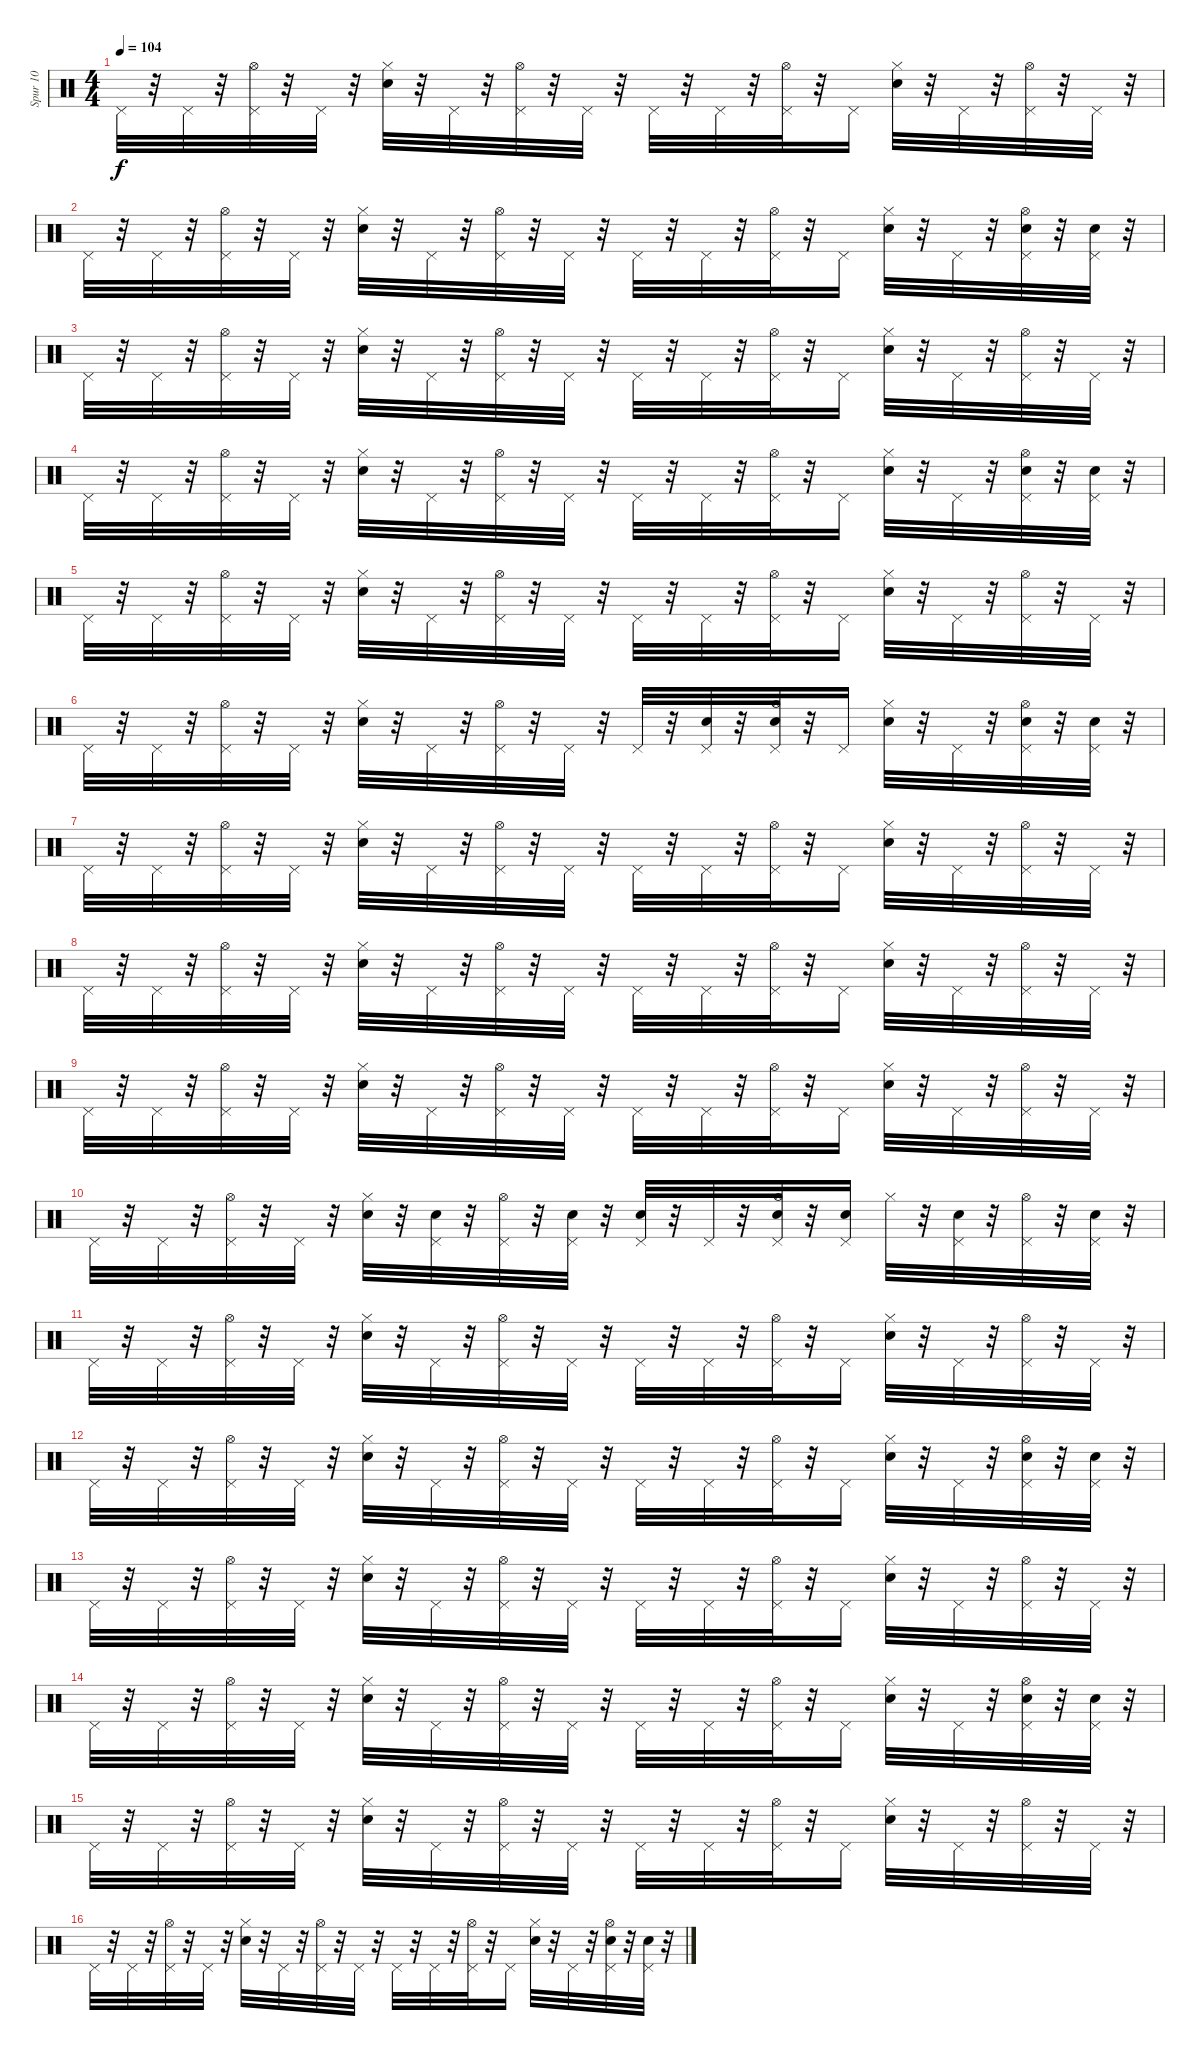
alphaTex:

\track ("Spur 10" "Spur 10") {instrument percussion}
\staff {score}
\articulation defaults
\ts (4 4)
\tempo 104
\clef neutral
\ks c "Pedal Hi-Hat (hit)".32{dy f}
r.32 "Pedal Hi-Hat (hit)".32 r.32 ("Pedal Hi-Hat (hit)" "Hi-Hat (open)").32 r.32 "Pedal Hi-Hat (hit)".32 r.32 ("Snare (hit) 2" "Hi-Hat (closed)").32 r.32 "Pedal Hi-Hat (hit)".32 r.32 ("Pedal Hi-Hat (hit)" "Hi-Hat (open)").32 r.32 "Pedal Hi-Hat (hit)".32 r.32 "Pedal Hi-Hat (hit)".32 r.32 "Pedal Hi-Hat (hit)".32 r.32 ("Pedal Hi-Hat (hit)" "Hi-Hat (open)").32 r.32 "Pedal Hi-Hat (hit)".16 ("Snare (hit) 2" "Hi-Hat (closed)").32 r.32 "Pedal Hi-Hat (hit)".32 r.32 ("Pedal Hi-Hat (hit)" "Hi-Hat (open)").32 r.32 "Pedal Hi-Hat (hit)".32 r.32 |
"Pedal Hi-Hat (hit)".32 r.32 "Pedal Hi-Hat (hit)".32 r.32 ("Pedal Hi-Hat (hit)" "Hi-Hat (open)").32 r.32 "Pedal Hi-Hat (hit)".32 r.32 ("Snare (hit) 2" "Hi-Hat (closed)").32 r.32 "Pedal Hi-Hat (hit)".32 r.32 ("Pedal Hi-Hat (hit)" "Hi-Hat (open)").32 r.32 "Pedal Hi-Hat (hit)".32 r.32 "Pedal Hi-Hat (hit)".32 r.32 "Pedal Hi-Hat (hit)".32 r.32 ("Pedal Hi-Hat (hit)" "Hi-Hat (open)").32 r.32 "Pedal Hi-Hat (hit)".16 ("Snare (hit) 2" "Hi-Hat (closed)").32 r.32 "Pedal Hi-Hat (hit)".32 r.32 ("Snare (hit) 2" "Pedal Hi-Hat (hit)" "Hi-Hat (open)").32 r.32 ("Snare (hit) 2" "Pedal Hi-Hat (hit)").32 r.32 |
"Pedal Hi-Hat (hit)".32 r.32 "Pedal Hi-Hat (hit)".32 r.32 ("Pedal Hi-Hat (hit)" "Hi-Hat (open)").32 r.32 "Pedal Hi-Hat (hit)".32 r.32 ("Snare (hit) 2" "Hi-Hat (closed)").32 r.32 "Pedal Hi-Hat (hit)".32 r.32 ("Pedal Hi-Hat (hit)" "Hi-Hat (open)").32 r.32 "Pedal Hi-Hat (hit)".32 r.32 "Pedal Hi-Hat (hit)".32 r.32 "Pedal Hi-Hat (hit)".32 r.32 ("Pedal Hi-Hat (hit)" "Hi-Hat (open)").32 r.32 "Pedal Hi-Hat (hit)".16 ("Snare (hit) 2" "Hi-Hat (closed)").32 r.32 "Pedal Hi-Hat (hit)".32 r.32 ("Pedal Hi-Hat (hit)" "Hi-Hat (open)").32 r.32 "Pedal Hi-Hat (hit)".32 r.32 |
"Pedal Hi-Hat (hit)".32 r.32 "Pedal Hi-Hat (hit)".32 r.32 ("Pedal Hi-Hat (hit)" "Hi-Hat (open)").32 r.32 "Pedal Hi-Hat (hit)".32 r.32 ("Snare (hit) 2" "Hi-Hat (closed)").32 r.32 "Pedal Hi-Hat (hit)".32 r.32 ("Pedal Hi-Hat (hit)" "Hi-Hat (open)").32 r.32 "Pedal Hi-Hat (hit)".32 r.32 "Pedal Hi-Hat (hit)".32 r.32 "Pedal Hi-Hat (hit)".32 r.32 ("Pedal Hi-Hat (hit)" "Hi-Hat (open)").32 r.32 "Pedal Hi-Hat (hit)".16 ("Snare (hit) 2" "Hi-Hat (closed)").32 r.32 "Pedal Hi-Hat (hit)".32 r.32 ("Snare (hit) 2" "Pedal Hi-Hat (hit)" "Hi-Hat (open)").32 r.32 ("Snare (hit) 2" "Pedal Hi-Hat (hit)").32 r.32 |
"Pedal Hi-Hat (hit)".32 r.32 "Pedal Hi-Hat (hit)".32 r.32 ("Pedal Hi-Hat (hit)" "Hi-Hat (open)").32 r.32 "Pedal Hi-Hat (hit)".32 r.32 ("Snare (hit) 2" "Hi-Hat (closed)").32 r.32 "Pedal Hi-Hat (hit)".32 r.32 ("Pedal Hi-Hat (hit)" "Hi-Hat (open)").32 r.32 "Pedal Hi-Hat (hit)".32 r.32 "Pedal Hi-Hat (hit)".32 r.32 "Pedal Hi-Hat (hit)".32 r.32 ("Pedal Hi-Hat (hit)" "Hi-Hat (open)").32 r.32 "Pedal Hi-Hat (hit)".16 ("Snare (hit) 2" "Hi-Hat (closed)").32 r.32 "Pedal Hi-Hat (hit)".32 r.32 ("Pedal Hi-Hat (hit)" "Hi-Hat (open)").32 r.32 "Pedal Hi-Hat (hit)".32 r.32 |
"Pedal Hi-Hat (hit)".32 r.32 "Pedal Hi-Hat (hit)".32 r.32 ("Pedal Hi-Hat (hit)" "Hi-Hat (open)").32 r.32 "Pedal Hi-Hat (hit)".32 r.32 ("Snare (hit) 2" "Hi-Hat (closed)").32 r.32 "Pedal Hi-Hat (hit)".32 r.32 ("Pedal Hi-Hat (hit)" "Hi-Hat (open)").32 r.32 "Pedal Hi-Hat (hit)".32 r.32 "Pedal Hi-Hat (hit)".32 r.32 ("Pedal Hi-Hat (hit)" "Snare (hit) 2").32 r.32 ("Pedal Hi-Hat (hit)" "Snare (hit) 2" "Hi-Hat (open)").32 r.32 "Pedal Hi-Hat (hit)".16 ("Snare (hit) 2" "Hi-Hat (closed)").32 r.32 "Pedal Hi-Hat (hit)".32 r.32 ("Snare (hit) 2" "Pedal Hi-Hat (hit)" "Hi-Hat (open)").32 r.32 ("Snare (hit) 2" "Pedal Hi-Hat (hit)").32 r.32 |
"Pedal Hi-Hat (hit)".32 r.32 "Pedal Hi-Hat (hit)".32 r.32 ("Pedal Hi-Hat (hit)" "Hi-Hat (open)").32 r.32 "Pedal Hi-Hat (hit)".32 r.32 ("Snare (hit) 2" "Hi-Hat (closed)").32 r.32 "Pedal Hi-Hat (hit)".32 r.32 ("Pedal Hi-Hat (hit)" "Hi-Hat (open)").32 r.32 "Pedal Hi-Hat (hit)".32 r.32 "Pedal Hi-Hat (hit)".32 r.32 "Pedal Hi-Hat (hit)".32 r.32 ("Pedal Hi-Hat (hit)" "Hi-Hat (open)").32 r.32 "Pedal Hi-Hat (hit)".16 ("Snare (hit) 2" "Hi-Hat (closed)").32 r.32 "Pedal Hi-Hat (hit)".32 r.32 ("Pedal Hi-Hat (hit)" "Hi-Hat (open)").32 r.32 "Pedal Hi-Hat (hit)".32 r.32 |
"Pedal Hi-Hat (hit)".32 r.32 "Pedal Hi-Hat (hit)".32 r.32 ("Pedal Hi-Hat (hit)" "Hi-Hat (open)").32 r.32 "Pedal Hi-Hat (hit)".32 r.32 ("Snare (hit) 2" "Hi-Hat (closed)").32 r.32 "Pedal Hi-Hat (hit)".32 r.32 ("Pedal Hi-Hat (hit)" "Hi-Hat (open)").32 r.32 "Pedal Hi-Hat (hit)".32 r.32 "Pedal Hi-Hat (hit)".32 r.32 "Pedal Hi-Hat (hit)".32 r.32 ("Pedal Hi-Hat (hit)" "Hi-Hat (open)").32 r.32 "Pedal Hi-Hat (hit)".16 ("Snare (hit) 2" "Hi-Hat (closed)").32 r.32 "Pedal Hi-Hat (hit)".32 r.32 ("Pedal Hi-Hat (hit)" "Hi-Hat (open)").32 r.32 "Pedal Hi-Hat (hit)".32 r.32 |
"Pedal Hi-Hat (hit)".32 r.32 "Pedal Hi-Hat (hit)".32 r.32 ("Pedal Hi-Hat (hit)" "Hi-Hat (open)").32 r.32 "Pedal Hi-Hat (hit)".32 r.32 ("Snare (hit) 2" "Hi-Hat (closed)").32 r.32 "Pedal Hi-Hat (hit)".32 r.32 ("Pedal Hi-Hat (hit)" "Hi-Hat (open)").32 r.32 "Pedal Hi-Hat (hit)".32 r.32 "Pedal Hi-Hat (hit)".32 r.32 "Pedal Hi-Hat (hit)".32 r.32 ("Pedal Hi-Hat (hit)" "Hi-Hat (open)").32 r.32 "Pedal Hi-Hat (hit)".16 ("Snare (hit) 2" "Hi-Hat (closed)").32 r.32 "Pedal Hi-Hat (hit)".32 r.32 ("Pedal Hi-Hat (hit)" "Hi-Hat (open)").32 r.32 "Pedal Hi-Hat (hit)".32 r.32 |
"Pedal Hi-Hat (hit)".32 r.32 "Pedal Hi-Hat (hit)".32 r.32 ("Pedal Hi-Hat (hit)" "Hi-Hat (open)").32 r.32 "Pedal Hi-Hat (hit)".32 r.32 ("Snare (hit) 2" "Hi-Hat (closed)").32 r.32 ("Pedal Hi-Hat (hit)" "Snare (hit) 2").32 r.32 ("Pedal Hi-Hat (hit)" "Hi-Hat (open)").32 r.32 ("Snare (hit) 2" "Pedal Hi-Hat (hit)").32 r.32 ("Snare (hit) 2" "Pedal Hi-Hat (hit)").32 r.32 "Pedal Hi-Hat (hit)".32 r.32 ("Snare (hit) 2" "Pedal Hi-Hat (hit)" "Hi-Hat (open)").32 r.32 ("Snare (hit) 2" "Pedal Hi-Hat (hit)").16 "Hi-Hat (closed)".32 r.32 ("Snare (hit) 2" "Pedal Hi-Hat (hit)").32 r.32 ("Pedal Hi-Hat (hit)" "Hi-Hat (open)").32 r.32 ("Snare (hit) 2" "Pedal Hi-Hat (hit)").32 r.32 |
"Pedal Hi-Hat (hit)".32 r.32 "Pedal Hi-Hat (hit)".32 r.32 ("Pedal Hi-Hat (hit)" "Hi-Hat (open)").32 r.32 "Pedal Hi-Hat (hit)".32 r.32 ("Snare (hit) 2" "Hi-Hat (closed)").32 r.32 "Pedal Hi-Hat (hit)".32 r.32 ("Pedal Hi-Hat (hit)" "Hi-Hat (open)").32 r.32 "Pedal Hi-Hat (hit)".32 r.32 "Pedal Hi-Hat (hit)".32 r.32 "Pedal Hi-Hat (hit)".32 r.32 ("Pedal Hi-Hat (hit)" "Hi-Hat (open)").32 r.32 "Pedal Hi-Hat (hit)".16 ("Snare (hit) 2" "Hi-Hat (closed)").32 r.32 "Pedal Hi-Hat (hit)".32 r.32 ("Pedal Hi-Hat (hit)" "Hi-Hat (open)").32 r.32 "Pedal Hi-Hat (hit)".32 r.32 |
"Pedal Hi-Hat (hit)".32 r.32 "Pedal Hi-Hat (hit)".32 r.32 ("Pedal Hi-Hat (hit)" "Hi-Hat (open)").32 r.32 "Pedal Hi-Hat (hit)".32 r.32 ("Snare (hit) 2" "Hi-Hat (closed)").32 r.32 "Pedal Hi-Hat (hit)".32 r.32 ("Pedal Hi-Hat (hit)" "Hi-Hat (open)").32 r.32 "Pedal Hi-Hat (hit)".32 r.32 "Pedal Hi-Hat (hit)".32 r.32 "Pedal Hi-Hat (hit)".32 r.32 ("Pedal Hi-Hat (hit)" "Hi-Hat (open)").32 r.32 "Pedal Hi-Hat (hit)".16 ("Snare (hit) 2" "Hi-Hat (closed)").32 r.32 "Pedal Hi-Hat (hit)".32 r.32 ("Snare (hit) 2" "Pedal Hi-Hat (hit)" "Hi-Hat (open)").32 r.32 ("Snare (hit) 2" "Pedal Hi-Hat (hit)").32 r.32 |
"Pedal Hi-Hat (hit)".32 r.32 "Pedal Hi-Hat (hit)".32 r.32 ("Pedal Hi-Hat (hit)" "Hi-Hat (open)").32 r.32 "Pedal Hi-Hat (hit)".32 r.32 ("Snare (hit) 2" "Hi-Hat (closed)").32 r.32 "Pedal Hi-Hat (hit)".32 r.32 ("Pedal Hi-Hat (hit)" "Hi-Hat (open)").32 r.32 "Pedal Hi-Hat (hit)".32 r.32 "Pedal Hi-Hat (hit)".32 r.32 "Pedal Hi-Hat (hit)".32 r.32 ("Pedal Hi-Hat (hit)" "Hi-Hat (open)").32 r.32 "Pedal Hi-Hat (hit)".16 ("Snare (hit) 2" "Hi-Hat (closed)").32 r.32 "Pedal Hi-Hat (hit)".32 r.32 ("Pedal Hi-Hat (hit)" "Hi-Hat (open)").32 r.32 "Pedal Hi-Hat (hit)".32 r.32 |
"Pedal Hi-Hat (hit)".32 r.32 "Pedal Hi-Hat (hit)".32 r.32 ("Pedal Hi-Hat (hit)" "Hi-Hat (open)").32 r.32 "Pedal Hi-Hat (hit)".32 r.32 ("Snare (hit) 2" "Hi-Hat (closed)").32 r.32 "Pedal Hi-Hat (hit)".32 r.32 ("Pedal Hi-Hat (hit)" "Hi-Hat (open)").32 r.32 "Pedal Hi-Hat (hit)".32 r.32 "Pedal Hi-Hat (hit)".32 r.32 "Pedal Hi-Hat (hit)".32 r.32 ("Pedal Hi-Hat (hit)" "Hi-Hat (open)").32 r.32 "Pedal Hi-Hat (hit)".16 ("Snare (hit) 2" "Hi-Hat (closed)").32 r.32 "Pedal Hi-Hat (hit)".32 r.32 ("Snare (hit) 2" "Pedal Hi-Hat (hit)" "Hi-Hat (open)").32 r.32 ("Snare (hit) 2" "Pedal Hi-Hat (hit)").32 r.32 |
"Pedal Hi-Hat (hit)".32 r.32 "Pedal Hi-Hat (hit)".32 r.32 ("Pedal Hi-Hat (hit)" "Hi-Hat (open)").32 r.32 "Pedal Hi-Hat (hit)".32 r.32 ("Snare (hit) 2" "Hi-Hat (closed)").32 r.32 "Pedal Hi-Hat (hit)".32 r.32 ("Pedal Hi-Hat (hit)" "Hi-Hat (open)").32 r.32 "Pedal Hi-Hat (hit)".32 r.32 "Pedal Hi-Hat (hit)".32 r.32 "Pedal Hi-Hat (hit)".32 r.32 ("Pedal Hi-Hat (hit)" "Hi-Hat (open)").32 r.32 "Pedal Hi-Hat (hit)".16 ("Snare (hit) 2" "Hi-Hat (closed)").32 r.32 "Pedal Hi-Hat (hit)".32 r.32 ("Pedal Hi-Hat (hit)" "Hi-Hat (open)").32 r.32 "Pedal Hi-Hat (hit)".32 r.32 |
"Pedal Hi-Hat (hit)".32 r.32 "Pedal Hi-Hat (hit)".32 r.32 ("Pedal Hi-Hat (hit)" "Hi-Hat (open)").32 r.32 "Pedal Hi-Hat (hit)".32 r.32 ("Snare (hit) 2" "Hi-Hat (closed)").32 r.32 "Pedal Hi-Hat (hit)".32 r.32 ("Pedal Hi-Hat (hit)" "Hi-Hat (open)").32 r.32 "Pedal Hi-Hat (hit)".32 r.32 "Pedal Hi-Hat (hit)".32 r.32 "Pedal Hi-Hat (hit)".32 r.32 ("Pedal Hi-Hat (hit)" "Hi-Hat (open)").32 r.32 "Pedal Hi-Hat (hit)".16 ("Snare (hit) 2" "Hi-Hat (closed)").32 r.32 "Pedal Hi-Hat (hit)".32 r.32 ("Snare (hit) 2" "Pedal Hi-Hat (hit)" "Hi-Hat (open)").32 r.32 ("Snare (hit) 2" "Pedal Hi-Hat (hit)").32 r.32
